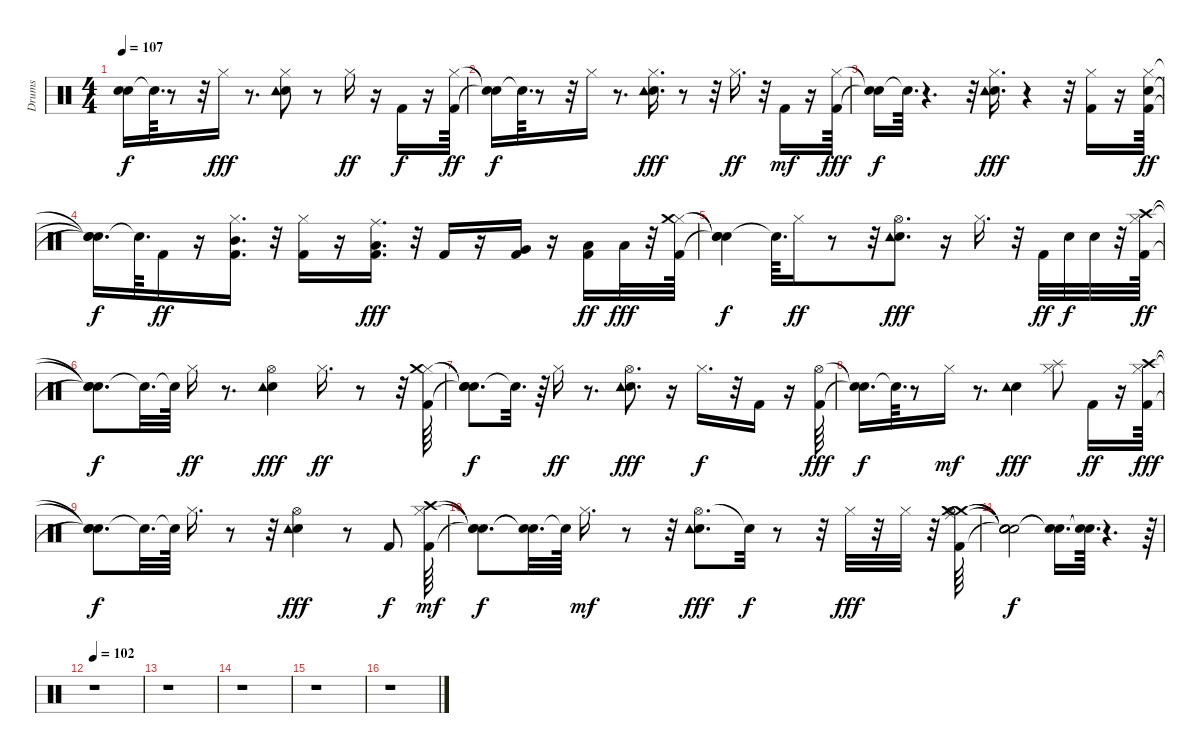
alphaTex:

\track ("Drums" "Drums") {instrument percussion}
\staff {score}
\articulation defaults
\ts (4 4)
\tempo 107
\clef neutral
\ks c
("Snare (hit)"{t} "Snare (hit)"{t}).16{dy f} "Snare (hit)"{t}.64{d} r.8 r.32 "Hi-Hat (closed)".16{dy fff} r.8{d} ("Hi-Hat (closed)" "Electric Snare (hit)" "Tambourine (hit)").8 r.8 "Hi-Hat (closed)".16{dy ff} r.16 "Kick (hit) 2".16{dy f} r.16 ("Hi-Hat (closed)" "Kick (hit) 2").64{dy ff} |
("Snare (hit)"{t} "Snare (hit)"{t}).16{dy f} "Snare (hit)"{t}.64{d} r.8 r.32 "Hi-Hat (closed)".16 r.8{d} ("Hi-Hat (closed)" "Electric Snare (hit)" "Tambourine (hit)").16{d dy fff} r.8 r.32 "Hi-Hat (closed)".16{d dy ff} r.32 "Kick (hit) 2".16{dy mf} r.16 ("Hi-Hat (closed)" "Kick (hit) 2").64{dy fff} |
("Snare (hit)"{t} "Snare (hit)"{t}).16{dy f} "Snare (hit)"{t}.64{d} r.4{d} r.32 ("Hi-Hat (closed)" "Electric Snare (hit)" "Tambourine (hit)").16{d dy fff} r.4 r.32 ("Hi-Hat (closed)" "Kick (hit) 2").16 r.16 ("Electric Snare (hit)" "Hi-Hat (closed)" "Kick (hit) 2").64{dy ff} |
("Snare (hit)"{t} "Snare (hit)"{t} "Snare (hit)"{t}).16{d dy f} "Snare (hit)"{t}.64{d} "Kick (hit) 2".16{dy ff} r.16 ("Mid Tom (hit)" "Hi-Hat (closed)" "Kick (hit) 2").16{d} r.32 ("Hi-Hat (closed)" "Kick (hit) 2").16 r.16 ("Ride (middle)" "Kick (hit) 2" "Low Tom (hit)").16{d dy fff} r.32 "Kick (hit) 2".16 r.16 ("Kick (hit) 2" "Very Low Tom (hit)").16 r.16 ("Kick (hit) 2" "Low Floor Tom (hit)").16{dy ff} "Low Floor Tom (hit)".32{dy fff} r.32 ("Kick (hit) 2" "Hi-Hat (closed)" "Crash medium (hit)").64 |
("Snare (hit)"{t} "Snare (hit)"{t} "Snare (hit)"{t}).4{dy f} "Snare (hit)"{t}.64{d} "Hi-Hat (closed)".16{dy ff} r.8 r.32 ("Hi-Hat (open)" "Electric Snare (hit)" "Tambourine (hit)").8{d dy fff} r.16 "Hi-Hat (closed)".16{d} r.32 "Kick (hit) 2".32{dy ff} "Electric Snare (hit)".32{dy f} "Electric Snare (hit)".32 r.32 ("Kick (hit) 2" "Hi-Hat (closed)" "Crash high (hit)").64{dy ff} |
("Snare (hit)"{t} "Snare (hit)"{t} "Snare (hit)"{t}).8{d dy f} "Snare (hit)"{t}.32{d} "Snare (hit)"{t}.64 "Hi-Hat (closed)".16{dy ff} r.8{d} ("Hi-Hat (open)" "Electric Snare (hit)" "Tambourine (hit)").4{dy fff} "Hi-Hat (closed)".16{d dy ff} r.8 r.32 ("Kick (hit) 2" "Hi-Hat (closed)" "Crash medium (hit)").64 |
("Snare (hit)"{t} "Snare (hit)"{t} "Snare (hit)"{t}).8{d dy f} "Snare (hit)"{t}.32{d} r.64 "Hi-Hat (closed)".16{dy ff} r.8{d} ("Hi-Hat (open)" "Electric Snare (hit)" "Tambourine (hit)").8{d dy fff} r.16 "Hi-Hat (closed)".16{d dy f} r.32 "Kick (hit) 2".16 r.16 ("Kick (hit) 2" "Hi-Hat (open)").64{dy fff} |
("Snare (hit)"{t} "Snare (hit)"{t}).16{d dy f} "Snare (hit)"{t}.64{d} r.8 "Hi-Hat (closed)".16{dy mf} r.8{d} ("Electric Snare (hit)" "Tambourine (hit)").4{dy fff} ("Hi-Hat (closed)" "Splash (hit)").8 "Kick (hit) 2".16{dy ff} r.16 ("Kick (hit) 2" "Hi-Hat (closed)" "Crash high (hit)").64{dy fff} |
("Snare (hit)"{t} "Snare (hit)"{t} "Snare (hit)"{t}).8{d dy f} "Snare (hit)"{t}.32{d} "Snare (hit)"{t}.64 "Hi-Hat (closed)".16{d} r.8 r.32 ("Hi-Hat (open)" "Electric Snare (hit)" "Tambourine (hit)").4{dy fff} r.8 "Kick (hit) 2".8{dy f} ("Kick (hit) 2" "Hi-Hat (closed)" "Crash high (hit)").64{dy mf} |
("Snare (hit)"{t} "Snare (hit)"{t} "Snare (hit)"{t}).8{d dy f} ("Snare (hit)"{t} "Snare (hit)"{t}).32{d} "Snare (hit)"{t}.64 "Hi-Hat (closed)".16{d dy mf} r.8 r.32 ("Hi-Hat (open)" "Electric Snare (hit)" "Tambourine (hit)").8{d dy fff} "Snare (hit)"{t}.32{dy f} r.8 r.32 "Hi-Hat (closed)".32{dy fff} r.32 "Hi-Hat (closed)".32 r.32 ("Kick (hit) 2" "Crash medium (hit)" "Ride (middle)" "Hi-Hat (open)" "Crash medium (hit)").64 |
("Snare (hit)"{t} "Snare (hit)"{t} "Snare (hit)"{t} "Snare (hit)"{t} "Snare (hit)"{t}).2{dy f} ("Snare (hit)"{t} "Snare (hit)"{t}).16{d} ("Snare (hit)"{t} "Snare (hit)"{t}).64{d} r.4{d} r.64 |
\tempo 102
r.1 |
r.1 |
r.1 |
r.1 |
r.1
